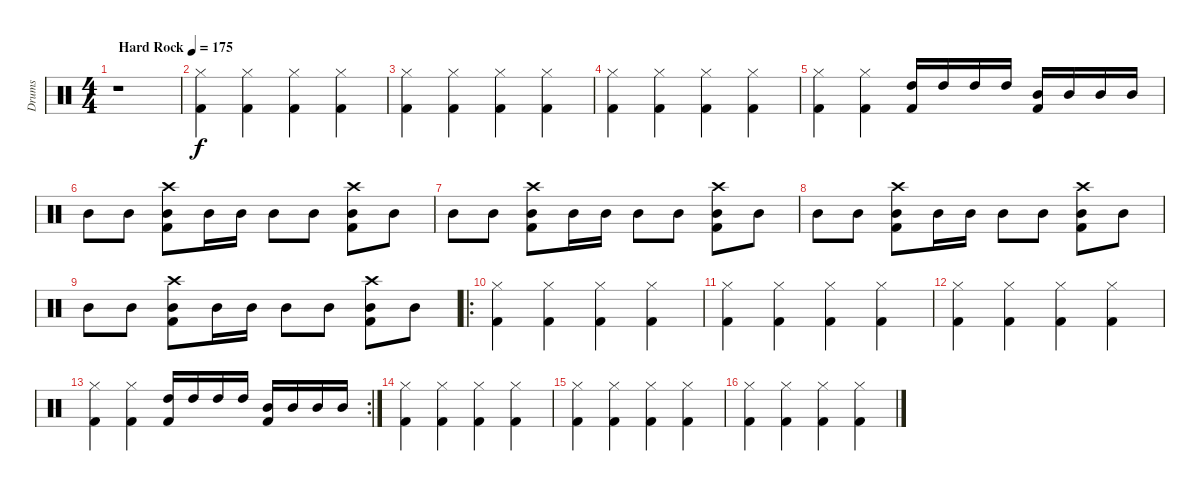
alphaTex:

\track ("Drums" "Drums") {instrument percussion}
\staff {score}
\articulation defaults
\ts (4 4)
\tempo (175 "Hard Rock")
\clef neutral
\ks c
r.1{dy f} |
("Hi-Hat (closed)" "Kick (hit) 2").4 ("Hi-Hat (closed)" "Kick (hit) 2").4 ("Hi-Hat (closed)" "Kick (hit) 2").4 ("Hi-Hat (closed)" "Kick (hit) 2").4 |
("Hi-Hat (closed)" "Kick (hit) 2").4 ("Hi-Hat (closed)" "Kick (hit) 2").4 ("Hi-Hat (closed)" "Kick (hit) 2").4 ("Hi-Hat (closed)" "Kick (hit) 2").4 |
("Hi-Hat (closed)" "Kick (hit) 2").4 ("Hi-Hat (closed)" "Kick (hit) 2").4 ("Hi-Hat (closed)" "Kick (hit) 2").4 ("Hi-Hat (closed)" "Kick (hit) 2").4 |
("Hi-Hat (closed)" "Kick (hit) 2").4 ("Hi-Hat (closed)" "Kick (hit) 2").4 ("High Tom (hit)" "Kick (hit) 2").16 "High Tom (hit)".16 "High Tom (hit)".16 "High Tom (hit)".16 ("Mid Tom (hit)" "Kick (hit) 2").16 "Mid Tom (hit)".16 "Mid Tom (hit)".16 "Mid Tom (hit)".16 |
"Mid Tom (hit)".8 "Mid Tom (hit)".8 ("Crash high (hit)" "Mid Tom (hit)" "Kick (hit) 2").8 "Mid Tom (hit)".16 "Mid Tom (hit)".16 "Mid Tom (hit)".8 "Mid Tom (hit)".8 ("Crash high (hit)" "Mid Tom (hit)" "Kick (hit) 2").8 "Mid Tom (hit)".8 |
"Mid Tom (hit)".8 "Mid Tom (hit)".8 ("Crash high (hit)" "Mid Tom (hit)" "Kick (hit) 2").8 "Mid Tom (hit)".16 "Mid Tom (hit)".16 "Mid Tom (hit)".8 "Mid Tom (hit)".8 ("Crash high (hit)" "Mid Tom (hit)" "Kick (hit) 2").8 "Mid Tom (hit)".8 |
"Mid Tom (hit)".8 "Mid Tom (hit)".8 ("Crash high (hit)" "Mid Tom (hit)" "Kick (hit) 2").8 "Mid Tom (hit)".16 "Mid Tom (hit)".16 "Mid Tom (hit)".8 "Mid Tom (hit)".8 ("Crash high (hit)" "Mid Tom (hit)" "Kick (hit) 2").8 "Mid Tom (hit)".8 |
"Mid Tom (hit)".8 "Mid Tom (hit)".8 ("Crash high (hit)" "Mid Tom (hit)" "Kick (hit) 2").8 "Mid Tom (hit)".16 "Mid Tom (hit)".16 "Mid Tom (hit)".8 "Mid Tom (hit)".8 ("Crash high (hit)" "Mid Tom (hit)" "Kick (hit) 2").8 "Mid Tom (hit)".8 |
\ro
("Hi-Hat (closed)" "Kick (hit) 2").4 ("Hi-Hat (closed)" "Kick (hit) 2").4 ("Hi-Hat (closed)" "Kick (hit) 2").4 ("Hi-Hat (closed)" "Kick (hit) 2").4 |
("Hi-Hat (closed)" "Kick (hit) 2").4 ("Hi-Hat (closed)" "Kick (hit) 2").4 ("Hi-Hat (closed)" "Kick (hit) 2").4 ("Hi-Hat (closed)" "Kick (hit) 2").4 |
("Hi-Hat (closed)" "Kick (hit) 2").4 ("Hi-Hat (closed)" "Kick (hit) 2").4 ("Hi-Hat (closed)" "Kick (hit) 2").4 ("Hi-Hat (closed)" "Kick (hit) 2").4 |
\rc 2
("Hi-Hat (closed)" "Kick (hit) 2").4 ("Hi-Hat (closed)" "Kick (hit) 2").4 ("High Tom (hit)" "Kick (hit) 2").16 "High Tom (hit)".16 "High Tom (hit)".16 "High Tom (hit)".16 ("Mid Tom (hit)" "Kick (hit) 2").16 "Mid Tom (hit)".16 "Mid Tom (hit)".16 "Mid Tom (hit)".16 |
("Hi-Hat (closed)" "Kick (hit) 2").4 ("Hi-Hat (closed)" "Kick (hit) 2").4 ("Hi-Hat (closed)" "Kick (hit) 2").4 ("Hi-Hat (closed)" "Kick (hit) 2").4 |
("Hi-Hat (closed)" "Kick (hit) 2").4 ("Hi-Hat (closed)" "Kick (hit) 2").4 ("Hi-Hat (closed)" "Kick (hit) 2").4 ("Hi-Hat (closed)" "Kick (hit) 2").4 |
("Hi-Hat (closed)" "Kick (hit) 2").4 ("Hi-Hat (closed)" "Kick (hit) 2").4 ("Hi-Hat (closed)" "Kick (hit) 2").4 ("Hi-Hat (closed)" "Kick (hit) 2").4
